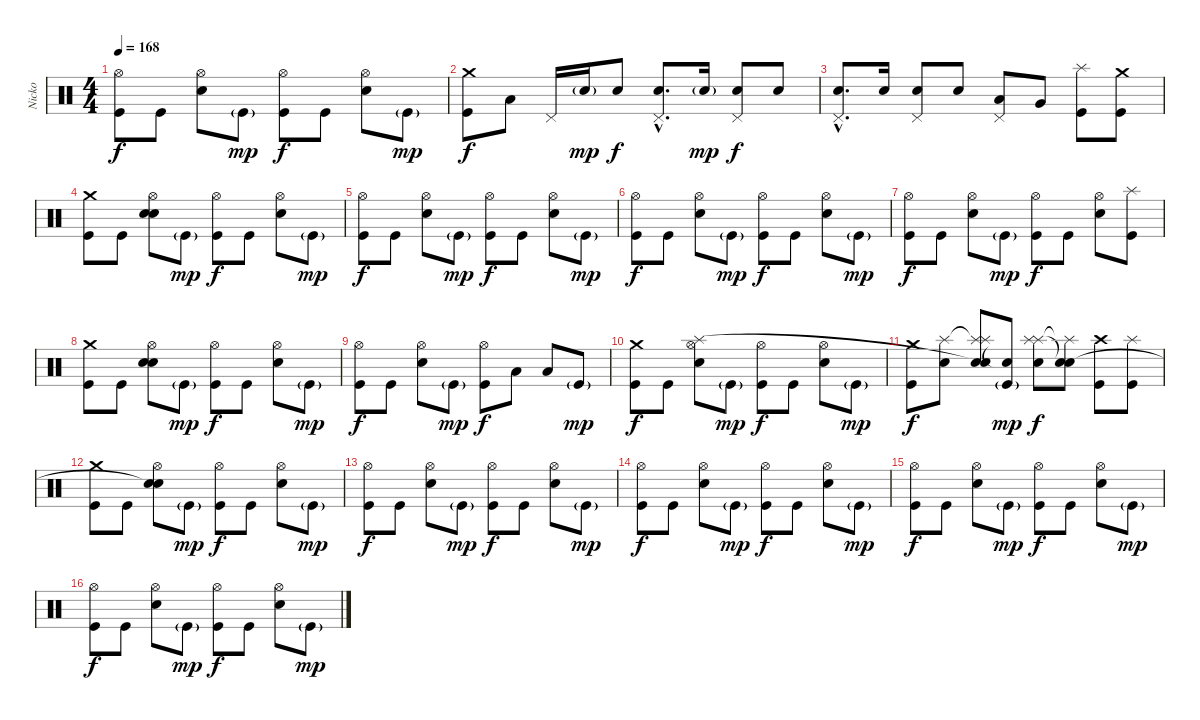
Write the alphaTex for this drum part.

\track ("Nicko" "Nicko") {instrument percussion}
\staff {score}
\articulation defaults
\ts (4 4)
\tempo 168
\clef neutral
\ks c
("Kick (hit)" "Hi-Hat (open)").8{dy f} "Kick (hit)".8 ("Electric Snare (hit)" "Hi-Hat (open)").8 "Kick (hit)"{g}.8{dy mp} ("Kick (hit)" "Hi-Hat (open)").8{dy f} "Kick (hit)".8 ("Electric Snare (hit)" "Hi-Hat (open)").8 "Kick (hit)"{g}.8{dy mp} |
("Kick (hit)" "Crash medium (hit)").8{dy f} "Low Tom (hit)".8 "Pedal Hi-Hat (hit)".16 "Electric Snare (hit)"{g}.16{dy mp} "Electric Snare (hit)".8{dy f} ("Electric Snare (hit)"{hac} "Pedal Hi-Hat (hit)"{hac}).8{d} "Electric Snare (hit)"{g}.16{dy mp} ("Electric Snare (hit)" "Pedal Hi-Hat (hit)").8{dy f} "Electric Snare (hit)".8 |
("Electric Snare (hit)"{hac} "Pedal Hi-Hat (hit)"{hac}).8{d} "Electric Snare (hit)".16 ("Electric Snare (hit)" "Pedal Hi-Hat (hit)").8 "Electric Snare (hit)".8 ("Low Tom (hit)" "Pedal Hi-Hat (hit)").8 "Very Low Tom (hit)".8 ("Kick (hit)" "Splash (hit)").8 ("Kick (hit)" "Crash medium (hit)").8 |
("Kick (hit)" "Crash medium (hit)").8 "Kick (hit)".8 ("Electric Snare (hit)" "Hi-Hat (open)" "Snare (hit)").8 "Kick (hit)"{g}.8{dy mp} ("Kick (hit)" "Hi-Hat (open)").8{dy f} "Kick (hit)".8 ("Electric Snare (hit)" "Hi-Hat (open)").8 "Kick (hit)"{g}.8{dy mp} |
("Kick (hit)" "Hi-Hat (open)").8{dy f} "Kick (hit)".8 ("Electric Snare (hit)" "Hi-Hat (open)").8 "Kick (hit)"{g}.8{dy mp} ("Kick (hit)" "Hi-Hat (open)").8{dy f} "Kick (hit)".8 ("Electric Snare (hit)" "Hi-Hat (open)").8 "Kick (hit)"{g}.8{dy mp} |
("Kick (hit)" "Hi-Hat (open)").8{dy f} "Kick (hit)".8 ("Electric Snare (hit)" "Hi-Hat (open)").8 "Kick (hit)"{g}.8{dy mp} ("Kick (hit)" "Hi-Hat (open)").8{dy f} "Kick (hit)".8 ("Electric Snare (hit)" "Hi-Hat (open)").8 "Kick (hit)"{g}.8{dy mp} |
("Kick (hit)" "Hi-Hat (open)").8{dy f} "Kick (hit)".8 ("Electric Snare (hit)" "Hi-Hat (open)").8 "Kick (hit)"{g}.8{dy mp} ("Kick (hit)" "Hi-Hat (open)").8{dy f} "Kick (hit)".8 ("Electric Snare (hit)" "Hi-Hat (open)").8 ("Kick (hit)" "Splash (hit)").8 |
("Kick (hit)" "Crash medium (hit)").8 "Kick (hit)".8 ("Electric Snare (hit)" "Hi-Hat (open)" "Snare (hit)").8 "Kick (hit)"{g}.8{dy mp} ("Kick (hit)" "Hi-Hat (open)").8{dy f} "Kick (hit)".8 ("Electric Snare (hit)" "Hi-Hat (open)").8 "Kick (hit)"{g}.8{dy mp} |
("Kick (hit)" "Hi-Hat (open)").8{dy f} "Kick (hit)".8 ("Electric Snare (hit)" "Hi-Hat (open)").8 "Kick (hit)"{g}.8{dy mp} ("Kick (hit)" "Hi-Hat (open)").8{dy f} "Low Tom (hit)".8 "Low Tom (hit)".8 "Kick (hit)"{g}.8{dy mp} |
("Kick (hit)" "Crash medium (hit)").8{dy f} "Kick (hit)".8 ("Electric Snare (hit)" "Hi-Hat (open)" "Splash (hit)").8 "Kick (hit)"{g}.8{dy mp} ("Kick (hit)" "Hi-Hat (open)").8{dy f} "Kick (hit)".8 ("Electric Snare (hit)" "Hi-Hat (open)").8 "Kick (hit)"{g}.8{dy mp} |
("Kick (hit)" "Crash medium (hit)").8{dy f} ("Electric Snare (hit)" "Splash (hit)").8 ("Electric Snare (hit)" "Splash (hit)"{t} "Snare (hit)"{t} "Splash (hit)").8 ("Kick (hit)"{g} "Snare (hit)"{t}).8{dy mp} ("Electric Snare (hit)" "Splash (hit)" "Splash (hit)").8{dy f} ("Electric Snare (hit)" "Splash (hit)"{t} "Snare (hit)"{t}).8 ("Kick (hit)" "Crash high (hit)").8 ("Kick (hit)" "Splash (hit)").8 |
("Kick (hit)" "Crash medium (hit)").8 "Kick (hit)".8 ("Electric Snare (hit)" "Hi-Hat (open)" "Snare (hit)"{t}).8 "Kick (hit)"{g}.8{dy mp} ("Kick (hit)" "Hi-Hat (open)").8{dy f} "Kick (hit)".8 ("Electric Snare (hit)" "Hi-Hat (open)").8 "Kick (hit)"{g}.8{dy mp} |
("Kick (hit)" "Hi-Hat (open)").8{dy f} "Kick (hit)".8 ("Electric Snare (hit)" "Hi-Hat (open)").8 "Kick (hit)"{g}.8{dy mp} ("Kick (hit)" "Hi-Hat (open)").8{dy f} "Kick (hit)".8 ("Electric Snare (hit)" "Hi-Hat (open)").8 "Kick (hit)"{g}.8{dy mp} |
("Kick (hit)" "Hi-Hat (open)").8{dy f} "Kick (hit)".8 ("Electric Snare (hit)" "Hi-Hat (open)").8 "Kick (hit)"{g}.8{dy mp} ("Kick (hit)" "Hi-Hat (open)").8{dy f} "Kick (hit)".8 ("Electric Snare (hit)" "Hi-Hat (open)").8 "Kick (hit)"{g}.8{dy mp} |
("Kick (hit)" "Hi-Hat (open)").8{dy f} "Kick (hit)".8 ("Electric Snare (hit)" "Hi-Hat (open)").8 "Kick (hit)"{g}.8{dy mp} ("Kick (hit)" "Hi-Hat (open)").8{dy f} "Kick (hit)".8 ("Electric Snare (hit)" "Hi-Hat (open)").8 "Kick (hit)"{g}.8{dy mp} |
("Kick (hit)" "Hi-Hat (open)").8{dy f} "Kick (hit)".8 ("Electric Snare (hit)" "Hi-Hat (open)").8 "Kick (hit)"{g}.8{dy mp} ("Kick (hit)" "Hi-Hat (open)").8{dy f} "Kick (hit)".8 ("Electric Snare (hit)" "Hi-Hat (open)").8 "Kick (hit)"{g}.8{dy mp}
